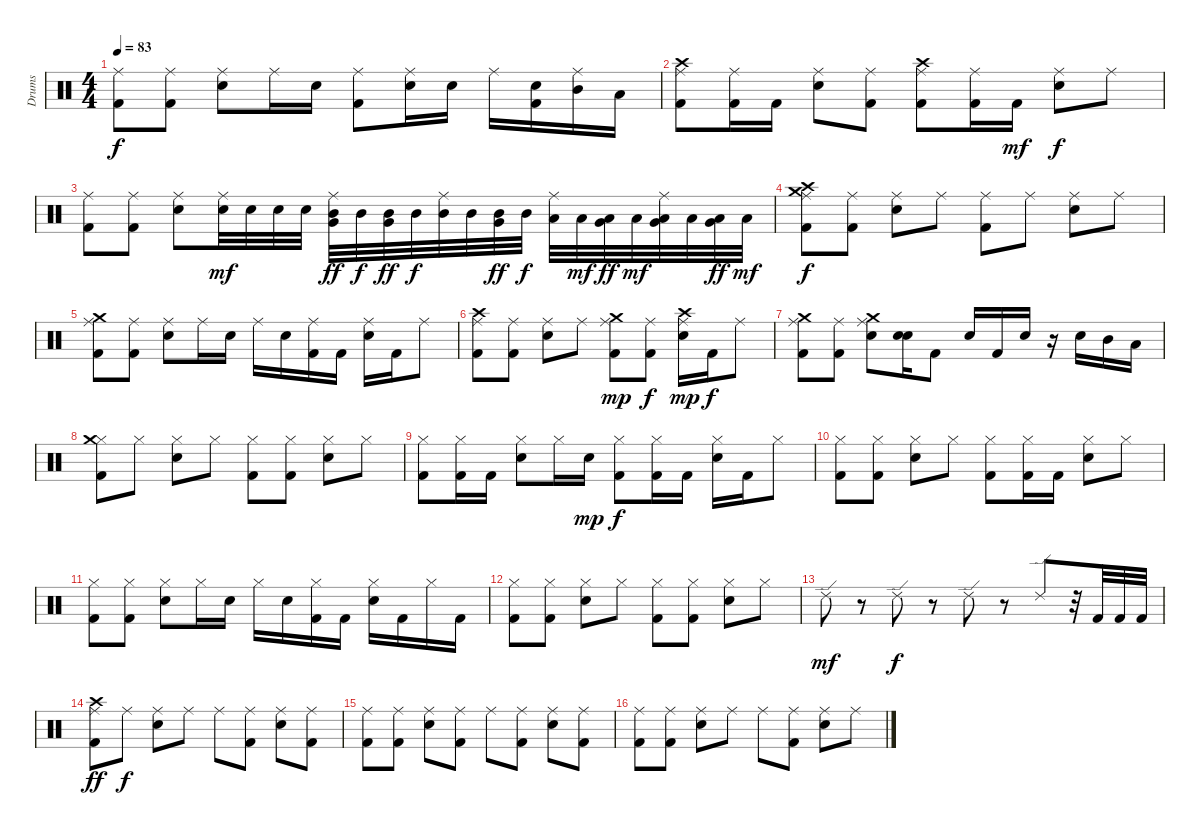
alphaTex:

\track ("Drums" "Drums") {instrument percussion}
\staff {score}
\articulation defaults
\ts (4 4)
\tempo 83
\clef neutral
\ks c
("Ride (middle)" "Kick (hit) 2").8{dy f} ("Ride (middle)" "Kick (hit) 2").8 ("Ride (middle)" "Electric Snare (hit)").8 "Ride (middle)".16 "Electric Snare (hit)".16 ("Ride (middle)" "Kick (hit) 2").8 ("Ride (middle)" "Electric Snare (hit)").16 "Electric Snare (hit)".16 "Ride (middle)".16 ("Kick (hit) 2" "Electric Snare (hit)").16 ("Ride (middle)" "Mid Tom (hit)").16 "Low Tom (hit)".16 |
("Ride (middle)" "Crash high (hit)" "Kick (hit) 2").8 ("Ride (middle)" "Kick (hit) 2").16 "Kick (hit) 2".16 ("Ride (middle)" "Electric Snare (hit)").8 ("Ride (middle)" "Kick (hit) 2").8 ("Ride (middle)" "Kick (hit) 2" "Crash high (hit)").8 ("Ride (middle)" "Kick (hit) 2").16 "Kick (hit) 2".16{dy mf} ("Ride (middle)" "Electric Snare (hit)").8{dy f} "Ride (middle)".8 |
("Ride (middle)" "Kick (hit) 2").8 ("Ride (middle)" "Kick (hit) 2").8 ("Ride (middle)" "Electric Snare (hit)").8 ("Ride (middle)" "Electric Snare (hit)").32{dy mf} "Electric Snare (hit)".32 "Electric Snare (hit)".32 "Electric Snare (hit)".32 ("Ride (middle)" "Mid Tom (hit)" "Very Low Tom (hit)").32{dy ff} "Mid Tom (hit)".32{dy f} ("Mid Tom (hit)" "Very Low Tom (hit)").32{dy ff} "Mid Tom (hit)".32{dy f} ("Ride (middle)" "Mid Tom (hit)").32 "Mid Tom (hit)".32 ("Mid Tom (hit)" "Very Low Tom (hit)").32{dy ff} "Mid Tom (hit)".32{dy f} ("Ride (middle)" "Low Tom (hit)").32 "Low Tom (hit)".32{dy mf} ("Low Tom (hit)" "Very Low Tom (hit)").32{dy ff} "Low Tom (hit)".32{dy mf} ("Ride (middle)" "Low Tom (hit)" "Very Low Tom (hit)").32 "Low Tom (hit)".32 ("Low Tom (hit)" "Very Low Tom (hit)").32{dy ff} "Low Tom (hit)".32{dy mf} |
("Ride (middle)" "Crash medium (hit)" "Crash high (hit)" "Kick (hit) 2").8{dy f} ("Ride (middle)" "Kick (hit) 2").8 ("Ride (middle)" "Electric Snare (hit)").8 "Ride (middle)".8 ("Ride (middle)" "Kick (hit) 2").8 "Ride (middle)".8 ("Ride (middle)" "Electric Snare (hit)").8 "Ride (middle)".8 |
("Ride (middle)" "Kick (hit) 2" "Crash medium (hit)").8 ("Ride (middle)" "Kick (hit) 2").8 ("Ride (middle)" "Electric Snare (hit)").8 "Ride (middle)".16 "Electric Snare (hit)".16 "Ride (middle)".16 "Electric Snare (hit)".16 ("Ride (middle)" "Kick (hit) 2").16 "Kick (hit) 2".16 ("Ride (middle)" "Electric Snare (hit)").16 "Kick (hit) 2".16 "Ride (middle)".8 |
("Ride (middle)" "Kick (hit) 2" "Crash high (hit)").8 ("Ride (middle)" "Kick (hit) 2").8 ("Ride (middle)" "Electric Snare (hit)").8 "Ride (middle)".8 ("Ride (middle)" "Kick (hit) 2" "Crash medium (hit)").8{dy mp} ("Ride (middle)" "Kick (hit) 2").8{dy f} ("Ride (middle)" "Electric Snare (hit)" "Crash high (hit)").16{dy mp} "Kick (hit) 2".16{dy f} "Ride (middle)".8 |
("Ride (middle)" "Crash medium (hit)" "Kick (hit) 2").8 ("Ride (middle)" "Kick (hit) 2").8 ("Ride (middle)" "Electric Snare (hit)" "Crash medium (hit)").8 ("Electric Snare (hit)" "Electric Snare (hit)").16 "Kick (hit) 2".8 "Electric Snare (hit)".16 "Kick (hit) 2".16 "Electric Snare (hit)".16 r.16 "Electric Snare (hit)".16 "Mid Tom (hit)".16 "Low Tom (hit)".16 |
("Hi-Hat (closed)" "Kick (hit) 2" "Crash medium (hit)").8 "Hi-Hat (closed)".8 ("Hi-Hat (closed)" "Electric Snare (hit)").8 "Hi-Hat (closed)".8 ("Hi-Hat (closed)" "Kick (hit) 2").8 ("Hi-Hat (closed)" "Kick (hit) 2").8 ("Hi-Hat (closed)" "Electric Snare (hit)").8 "Hi-Hat (closed)".8 |
("Hi-Hat (closed)" "Kick (hit) 2").8 ("Hi-Hat (closed)" "Kick (hit) 2").16 "Kick (hit) 2".16 ("Hi-Hat (closed)" "Electric Snare (hit)").8 "Hi-Hat (closed)".16 "Electric Snare (hit)".16{dy mp} ("Hi-Hat (closed)" "Kick (hit) 2").8{dy f} ("Hi-Hat (closed)" "Kick (hit) 2").16 "Kick (hit) 2".16 ("Hi-Hat (closed)" "Electric Snare (hit)").16 "Kick (hit) 2".16 "Hi-Hat (closed)".8 |
("Hi-Hat (closed)" "Kick (hit) 2").8 ("Hi-Hat (closed)" "Kick (hit) 2").8 ("Hi-Hat (closed)" "Electric Snare (hit)").8 "Hi-Hat (closed)".8 ("Hi-Hat (closed)" "Kick (hit) 2").8 ("Hi-Hat (closed)" "Kick (hit) 2").16 "Kick (hit) 2".16 ("Hi-Hat (closed)" "Electric Snare (hit)").8 "Hi-Hat (closed)".8 |
("Kick (hit) 2" "Hi-Hat (closed)").8 ("Kick (hit) 2" "Hi-Hat (closed)").8 ("Electric Snare (hit)" "Hi-Hat (closed)").8 "Hi-Hat (closed)".16 "Electric Snare (hit)".16 "Hi-Hat (closed)".16 "Electric Snare (hit)".16 ("Kick (hit) 2" "Hi-Hat (closed)").16 "Kick (hit) 2".16 ("Electric Snare (hit)" "Hi-Hat (closed)").16 "Kick (hit) 2".16 "Hi-Hat (closed)".16 "Kick (hit) 2".16 |
("Kick (hit) 2" "Hi-Hat (closed)").8 ("Kick (hit) 2" "Hi-Hat (closed)").8 ("Electric Snare (hit)" "Hi-Hat (closed)").8 "Hi-Hat (closed)".8 ("Kick (hit) 2" "Hi-Hat (closed)").8 ("Kick (hit) 2" "Hi-Hat (closed)").8 ("Electric Snare (hit)" "Hi-Hat (closed)").8 "Hi-Hat (closed)".8 |
"Ride (edge) 2".8{dy mf} r.8 "Ride (edge) 2".8{dy f} r.8 "Ride (edge) 2".8 r.8 "Ride (edge) 2".8 r.32 "Kick (hit) 2".32 "Kick (hit) 2".32 "Kick (hit) 2".32 |
("Ride (middle)" "Crash high (hit)" "Kick (hit) 2").8{dy ff} "Ride (middle)".8{dy f} ("Ride (middle)" "Electric Snare (hit)").8 "Ride (middle)".8 "Ride (middle)".8 ("Ride (middle)" "Kick (hit) 2").8 ("Ride (middle)" "Electric Snare (hit)").8 ("Ride (middle)" "Kick (hit) 2").8 |
("Ride (middle)" "Kick (hit) 2").8 ("Ride (middle)" "Kick (hit) 2").8 ("Ride (middle)" "Electric Snare (hit)").8 ("Ride (middle)" "Kick (hit) 2").8 "Ride (middle)".8 ("Ride (middle)" "Kick (hit) 2").8 ("Ride (middle)" "Electric Snare (hit)").8 ("Ride (middle)" "Kick (hit) 2").8 |
("Ride (middle)" "Kick (hit) 2").8 ("Ride (middle)" "Kick (hit) 2").8 ("Ride (middle)" "Electric Snare (hit)").8 "Ride (middle)".8 "Ride (middle)".8 ("Ride (middle)" "Kick (hit) 2").8 ("Ride (middle)" "Electric Snare (hit)").8 "Ride (middle)".8
